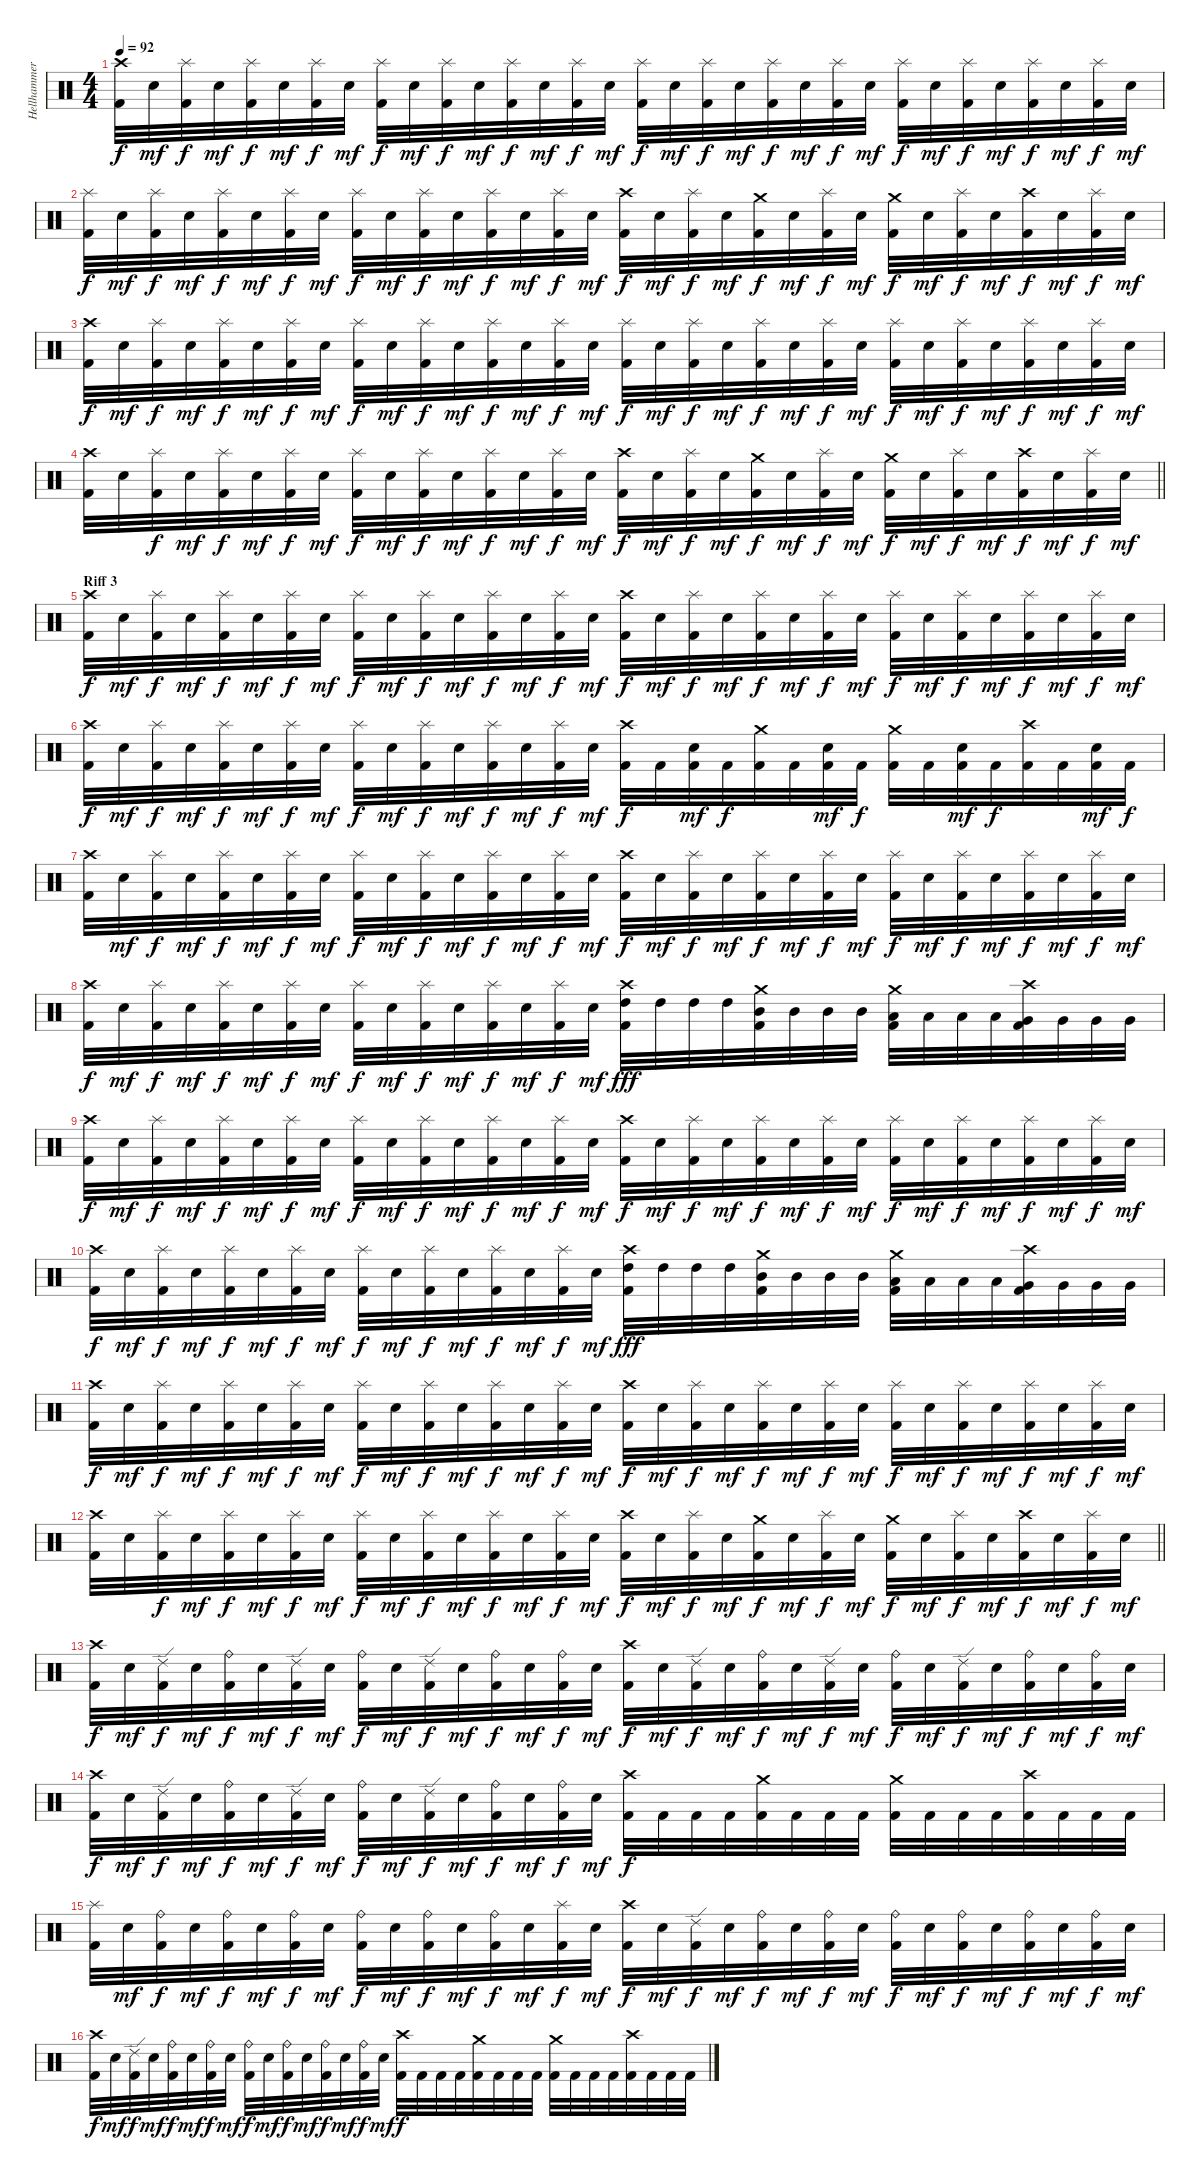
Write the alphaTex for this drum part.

\track ("Hellhammer" "Hellhammer") {instrument percussion}
\staff {score}
\articulation defaults
\ts (4 4)
\tempo 92
\clef neutral
\ks c
("Crash high (hit)" "Kick (hit) 2").32{dy f} "Electric Snare (hit)".32{dy mf} ("Splash (hit)" "Kick (hit) 2").32{dy f} "Electric Snare (hit)".32{dy mf} ("Splash (hit)" "Kick (hit) 2").32{dy f} "Electric Snare (hit)".32{dy mf} ("Splash (hit)" "Kick (hit) 2").32{dy f} "Electric Snare (hit)".32{dy mf} ("Splash (hit)" "Kick (hit) 2").32{dy f} "Electric Snare (hit)".32{dy mf} ("Splash (hit)" "Kick (hit) 2").32{dy f} "Electric Snare (hit)".32{dy mf} ("Splash (hit)" "Kick (hit) 2").32{dy f} "Electric Snare (hit)".32{dy mf} ("Splash (hit)" "Kick (hit) 2").32{dy f} "Electric Snare (hit)".32{dy mf} ("Splash (hit)" "Kick (hit) 2").32{dy f} "Electric Snare (hit)".32{dy mf} ("Splash (hit)" "Kick (hit) 2").32{dy f} "Electric Snare (hit)".32{dy mf} ("Splash (hit)" "Kick (hit) 2").32{dy f} "Electric Snare (hit)".32{dy mf} ("Splash (hit)" "Kick (hit) 2").32{dy f} "Electric Snare (hit)".32{dy mf} ("Splash (hit)" "Kick (hit) 2").32{dy f} "Electric Snare (hit)".32{dy mf} ("Splash (hit)" "Kick (hit) 2").32{dy f} "Electric Snare (hit)".32{dy mf} ("Splash (hit)" "Kick (hit) 2").32{dy f} "Electric Snare (hit)".32{dy mf} ("Splash (hit)" "Kick (hit) 2").32{dy f} "Electric Snare (hit)".32{dy mf} |
("Splash (hit)" "Kick (hit) 2").32{dy f} "Electric Snare (hit)".32{dy mf} ("Splash (hit)" "Kick (hit) 2").32{dy f} "Electric Snare (hit)".32{dy mf} ("Splash (hit)" "Kick (hit) 2").32{dy f} "Electric Snare (hit)".32{dy mf} ("Splash (hit)" "Kick (hit) 2").32{dy f} "Electric Snare (hit)".32{dy mf} ("Splash (hit)" "Kick (hit) 2").32{dy f} "Electric Snare (hit)".32{dy mf} ("Splash (hit)" "Kick (hit) 2").32{dy f} "Electric Snare (hit)".32{dy mf} ("Splash (hit)" "Kick (hit) 2").32{dy f} "Electric Snare (hit)".32{dy mf} ("Splash (hit)" "Kick (hit) 2").32{dy f} "Electric Snare (hit)".32{dy mf} ("Crash high (hit)" "Kick (hit) 2").32{dy f} "Electric Snare (hit)".32{dy mf} ("Splash (hit)" "Kick (hit) 2").32{dy f} "Electric Snare (hit)".32{dy mf} ("Crash medium (hit)" "Kick (hit) 2").32{dy f} "Electric Snare (hit)".32{dy mf} ("Splash (hit)" "Kick (hit) 2").32{dy f} "Electric Snare (hit)".32{dy mf} ("Crash medium (hit)" "Kick (hit) 2").32{dy f} "Electric Snare (hit)".32{dy mf} ("Splash (hit)" "Kick (hit) 2").32{dy f} "Electric Snare (hit)".32{dy mf} ("Crash high (hit)" "Kick (hit) 2").32{dy f} "Electric Snare (hit)".32{dy mf} ("Splash (hit)" "Kick (hit) 2").32{dy f} "Electric Snare (hit)".32{dy mf} |
("Crash high (hit)" "Kick (hit) 2").32{dy f} "Electric Snare (hit)".32{dy mf} ("Splash (hit)" "Kick (hit) 2").32{dy f} "Electric Snare (hit)".32{dy mf} ("Splash (hit)" "Kick (hit) 2").32{dy f} "Electric Snare (hit)".32{dy mf} ("Splash (hit)" "Kick (hit) 2").32{dy f} "Electric Snare (hit)".32{dy mf} ("Splash (hit)" "Kick (hit) 2").32{dy f} "Electric Snare (hit)".32{dy mf} ("Splash (hit)" "Kick (hit) 2").32{dy f} "Electric Snare (hit)".32{dy mf} ("Splash (hit)" "Kick (hit) 2").32{dy f} "Electric Snare (hit)".32{dy mf} ("Splash (hit)" "Kick (hit) 2").32{dy f} "Electric Snare (hit)".32{dy mf} ("Splash (hit)" "Kick (hit) 2").32{dy f} "Electric Snare (hit)".32{dy mf} ("Splash (hit)" "Kick (hit) 2").32{dy f} "Electric Snare (hit)".32{dy mf} ("Splash (hit)" "Kick (hit) 2").32{dy f} "Electric Snare (hit)".32{dy mf} ("Splash (hit)" "Kick (hit) 2").32{dy f} "Electric Snare (hit)".32{dy mf} ("Splash (hit)" "Kick (hit) 2").32{dy f} "Electric Snare (hit)".32{dy mf} ("Splash (hit)" "Kick (hit) 2").32{dy f} "Electric Snare (hit)".32{dy mf} ("Splash (hit)" "Kick (hit) 2").32{dy f} "Electric Snare (hit)".32{dy mf} ("Splash (hit)" "Kick (hit) 2").32{dy f} "Electric Snare (hit)".32{dy mf} |
\barLineRight lightlight
("Crash high (hit)" "Kick (hit) 2").32 "Electric Snare (hit)".32 ("Splash (hit)" "Kick (hit) 2").32{dy f} "Electric Snare (hit)".32{dy mf} ("Splash (hit)" "Kick (hit) 2").32{dy f} "Electric Snare (hit)".32{dy mf} ("Splash (hit)" "Kick (hit) 2").32{dy f} "Electric Snare (hit)".32{dy mf} ("Splash (hit)" "Kick (hit) 2").32{dy f} "Electric Snare (hit)".32{dy mf} ("Splash (hit)" "Kick (hit) 2").32{dy f} "Electric Snare (hit)".32{dy mf} ("Splash (hit)" "Kick (hit) 2").32{dy f} "Electric Snare (hit)".32{dy mf} ("Splash (hit)" "Kick (hit) 2").32{dy f} "Electric Snare (hit)".32{dy mf} ("Crash high (hit)" "Kick (hit) 2").32{dy f} "Electric Snare (hit)".32{dy mf} ("Splash (hit)" "Kick (hit) 2").32{dy f} "Electric Snare (hit)".32{dy mf} ("Crash medium (hit)" "Kick (hit) 2").32{dy f} "Electric Snare (hit)".32{dy mf} ("Splash (hit)" "Kick (hit) 2").32{dy f} "Electric Snare (hit)".32{dy mf} ("Crash medium (hit)" "Kick (hit) 2").32{dy f} "Electric Snare (hit)".32{dy mf} ("Splash (hit)" "Kick (hit) 2").32{dy f} "Electric Snare (hit)".32{dy mf} ("Crash high (hit)" "Kick (hit) 2").32{dy f} "Electric Snare (hit)".32{dy mf} ("Splash (hit)" "Kick (hit) 2").32{dy f} "Electric Snare (hit)".32{dy mf} |
\section ("" "Riff 3")
("Crash high (hit)" "Kick (hit) 2").32{dy f} "Electric Snare (hit)".32{dy mf} ("Splash (hit)" "Kick (hit) 2").32{dy f} "Electric Snare (hit)".32{dy mf} ("Splash (hit)" "Kick (hit) 2").32{dy f} "Electric Snare (hit)".32{dy mf} ("Splash (hit)" "Kick (hit) 2").32{dy f} "Electric Snare (hit)".32{dy mf} ("Splash (hit)" "Kick (hit) 2").32{dy f} "Electric Snare (hit)".32{dy mf} ("Splash (hit)" "Kick (hit) 2").32{dy f} "Electric Snare (hit)".32{dy mf} ("Splash (hit)" "Kick (hit) 2").32{dy f} "Electric Snare (hit)".32{dy mf} ("Splash (hit)" "Kick (hit) 2").32{dy f} "Electric Snare (hit)".32{dy mf} ("Crash high (hit)" "Kick (hit) 2").32{dy f} "Electric Snare (hit)".32{dy mf} ("Splash (hit)" "Kick (hit) 2").32{dy f} "Electric Snare (hit)".32{dy mf} ("Splash (hit)" "Kick (hit) 2").32{dy f} "Electric Snare (hit)".32{dy mf} ("Splash (hit)" "Kick (hit) 2").32{dy f} "Electric Snare (hit)".32{dy mf} ("Splash (hit)" "Kick (hit) 2").32{dy f} "Electric Snare (hit)".32{dy mf} ("Splash (hit)" "Kick (hit) 2").32{dy f} "Electric Snare (hit)".32{dy mf} ("Splash (hit)" "Kick (hit) 2").32{dy f} "Electric Snare (hit)".32{dy mf} ("Splash (hit)" "Kick (hit) 2").32{dy f} "Electric Snare (hit)".32{dy mf} |
("Crash high (hit)" "Kick (hit) 2").32{dy f} "Electric Snare (hit)".32{dy mf} ("Splash (hit)" "Kick (hit) 2").32{dy f} "Electric Snare (hit)".32{dy mf} ("Splash (hit)" "Kick (hit) 2").32{dy f} "Electric Snare (hit)".32{dy mf} ("Splash (hit)" "Kick (hit) 2").32{dy f} "Electric Snare (hit)".32{dy mf} ("Splash (hit)" "Kick (hit) 2").32{dy f} "Electric Snare (hit)".32{dy mf} ("Splash (hit)" "Kick (hit) 2").32{dy f} "Electric Snare (hit)".32{dy mf} ("Splash (hit)" "Kick (hit) 2").32{dy f} "Electric Snare (hit)".32{dy mf} ("Splash (hit)" "Kick (hit) 2").32{dy f} "Electric Snare (hit)".32{dy mf} ("Crash high (hit)" "Kick (hit) 2").32{dy f} "Kick (hit) 2".32 ("Electric Snare (hit)" "Kick (hit) 2").32{dy mf} "Kick (hit) 2".32{dy f} ("Crash medium (hit)" "Kick (hit) 2").32 "Kick (hit) 2".32 ("Electric Snare (hit)" "Kick (hit) 2").32{dy mf} "Kick (hit) 2".32{dy f} ("Crash medium (hit)" "Kick (hit) 2").32 "Kick (hit) 2".32 ("Electric Snare (hit)" "Kick (hit) 2").32{dy mf} "Kick (hit) 2".32{dy f} ("Crash high (hit)" "Kick (hit) 2").32 "Kick (hit) 2".32 ("Electric Snare (hit)" "Kick (hit) 2").32{dy mf} "Kick (hit) 2".32{dy f} |
("Crash high (hit)" "Kick (hit) 2").32 "Electric Snare (hit)".32{dy mf} ("Splash (hit)" "Kick (hit) 2").32{dy f} "Electric Snare (hit)".32{dy mf} ("Splash (hit)" "Kick (hit) 2").32{dy f} "Electric Snare (hit)".32{dy mf} ("Splash (hit)" "Kick (hit) 2").32{dy f} "Electric Snare (hit)".32{dy mf} ("Splash (hit)" "Kick (hit) 2").32{dy f} "Electric Snare (hit)".32{dy mf} ("Splash (hit)" "Kick (hit) 2").32{dy f} "Electric Snare (hit)".32{dy mf} ("Splash (hit)" "Kick (hit) 2").32{dy f} "Electric Snare (hit)".32{dy mf} ("Splash (hit)" "Kick (hit) 2").32{dy f} "Electric Snare (hit)".32{dy mf} ("Crash high (hit)" "Kick (hit) 2").32{dy f} "Electric Snare (hit)".32{dy mf} ("Splash (hit)" "Kick (hit) 2").32{dy f} "Electric Snare (hit)".32{dy mf} ("Splash (hit)" "Kick (hit) 2").32{dy f} "Electric Snare (hit)".32{dy mf} ("Splash (hit)" "Kick (hit) 2").32{dy f} "Electric Snare (hit)".32{dy mf} ("Splash (hit)" "Kick (hit) 2").32{dy f} "Electric Snare (hit)".32{dy mf} ("Splash (hit)" "Kick (hit) 2").32{dy f} "Electric Snare (hit)".32{dy mf} ("Splash (hit)" "Kick (hit) 2").32{dy f} "Electric Snare (hit)".32{dy mf} ("Splash (hit)" "Kick (hit) 2").32{dy f} "Electric Snare (hit)".32{dy mf} |
("Crash high (hit)" "Kick (hit) 2").32{dy f} "Electric Snare (hit)".32{dy mf} ("Splash (hit)" "Kick (hit) 2").32{dy f} "Electric Snare (hit)".32{dy mf} ("Splash (hit)" "Kick (hit) 2").32{dy f} "Electric Snare (hit)".32{dy mf} ("Splash (hit)" "Kick (hit) 2").32{dy f} "Electric Snare (hit)".32{dy mf} ("Splash (hit)" "Kick (hit) 2").32{dy f} "Electric Snare (hit)".32{dy mf} ("Splash (hit)" "Kick (hit) 2").32{dy f} "Electric Snare (hit)".32{dy mf} ("Splash (hit)" "Kick (hit) 2").32{dy f} "Electric Snare (hit)".32{dy mf} ("Splash (hit)" "Kick (hit) 2").32{dy f} "Electric Snare (hit)".32{dy mf} ("Crash high (hit)" "High Tom (hit)" "Kick (hit) 2").32{dy fff} "High Tom (hit)".32 "High Tom (hit)".32 "High Tom (hit)".32 ("Crash medium (hit)" "Mid Tom (hit)" "Kick (hit) 2").32 "Mid Tom (hit)".32 "Mid Tom (hit)".32 "Mid Tom (hit)".32 ("Crash medium (hit)" "Low Tom (hit)" "Kick (hit) 2").32 "Low Tom (hit)".32 "Low Tom (hit)".32 "Low Tom (hit)".32 ("Crash high (hit)" "Very Low Tom (hit)" "Kick (hit) 2").32 "Very Low Tom (hit)".32 "Very Low Tom (hit)".32 "Very Low Tom (hit)".32 |
("Crash high (hit)" "Kick (hit) 2").32{dy f} "Electric Snare (hit)".32{dy mf} ("Splash (hit)" "Kick (hit) 2").32{dy f} "Electric Snare (hit)".32{dy mf} ("Splash (hit)" "Kick (hit) 2").32{dy f} "Electric Snare (hit)".32{dy mf} ("Splash (hit)" "Kick (hit) 2").32{dy f} "Electric Snare (hit)".32{dy mf} ("Splash (hit)" "Kick (hit) 2").32{dy f} "Electric Snare (hit)".32{dy mf} ("Splash (hit)" "Kick (hit) 2").32{dy f} "Electric Snare (hit)".32{dy mf} ("Splash (hit)" "Kick (hit) 2").32{dy f} "Electric Snare (hit)".32{dy mf} ("Splash (hit)" "Kick (hit) 2").32{dy f} "Electric Snare (hit)".32{dy mf} ("Crash high (hit)" "Kick (hit) 2").32{dy f} "Electric Snare (hit)".32{dy mf} ("Splash (hit)" "Kick (hit) 2").32{dy f} "Electric Snare (hit)".32{dy mf} ("Splash (hit)" "Kick (hit) 2").32{dy f} "Electric Snare (hit)".32{dy mf} ("Splash (hit)" "Kick (hit) 2").32{dy f} "Electric Snare (hit)".32{dy mf} ("Splash (hit)" "Kick (hit) 2").32{dy f} "Electric Snare (hit)".32{dy mf} ("Splash (hit)" "Kick (hit) 2").32{dy f} "Electric Snare (hit)".32{dy mf} ("Splash (hit)" "Kick (hit) 2").32{dy f} "Electric Snare (hit)".32{dy mf} ("Splash (hit)" "Kick (hit) 2").32{dy f} "Electric Snare (hit)".32{dy mf} |
("Crash high (hit)" "Kick (hit) 2").32{dy f} "Electric Snare (hit)".32{dy mf} ("Splash (hit)" "Kick (hit) 2").32{dy f} "Electric Snare (hit)".32{dy mf} ("Splash (hit)" "Kick (hit) 2").32{dy f} "Electric Snare (hit)".32{dy mf} ("Splash (hit)" "Kick (hit) 2").32{dy f} "Electric Snare (hit)".32{dy mf} ("Splash (hit)" "Kick (hit) 2").32{dy f} "Electric Snare (hit)".32{dy mf} ("Splash (hit)" "Kick (hit) 2").32{dy f} "Electric Snare (hit)".32{dy mf} ("Splash (hit)" "Kick (hit) 2").32{dy f} "Electric Snare (hit)".32{dy mf} ("Splash (hit)" "Kick (hit) 2").32{dy f} "Electric Snare (hit)".32{dy mf} ("Crash high (hit)" "High Tom (hit)" "Kick (hit) 2").32{dy fff} "High Tom (hit)".32 "High Tom (hit)".32 "High Tom (hit)".32 ("Crash medium (hit)" "Mid Tom (hit)" "Kick (hit) 2").32 "Mid Tom (hit)".32 "Mid Tom (hit)".32 "Mid Tom (hit)".32 ("Crash medium (hit)" "Low Tom (hit)" "Kick (hit) 2").32 "Low Tom (hit)".32 "Low Tom (hit)".32 "Low Tom (hit)".32 ("Crash high (hit)" "Very Low Tom (hit)" "Kick (hit) 2").32 "Very Low Tom (hit)".32 "Very Low Tom (hit)".32 "Very Low Tom (hit)".32 |
("Crash high (hit)" "Kick (hit) 2").32{dy f} "Electric Snare (hit)".32{dy mf} ("Splash (hit)" "Kick (hit) 2").32{dy f} "Electric Snare (hit)".32{dy mf} ("Splash (hit)" "Kick (hit) 2").32{dy f} "Electric Snare (hit)".32{dy mf} ("Splash (hit)" "Kick (hit) 2").32{dy f} "Electric Snare (hit)".32{dy mf} ("Splash (hit)" "Kick (hit) 2").32{dy f} "Electric Snare (hit)".32{dy mf} ("Splash (hit)" "Kick (hit) 2").32{dy f} "Electric Snare (hit)".32{dy mf} ("Splash (hit)" "Kick (hit) 2").32{dy f} "Electric Snare (hit)".32{dy mf} ("Splash (hit)" "Kick (hit) 2").32{dy f} "Electric Snare (hit)".32{dy mf} ("Crash high (hit)" "Kick (hit) 2").32{dy f} "Electric Snare (hit)".32{dy mf} ("Splash (hit)" "Kick (hit) 2").32{dy f} "Electric Snare (hit)".32{dy mf} ("Splash (hit)" "Kick (hit) 2").32{dy f} "Electric Snare (hit)".32{dy mf} ("Splash (hit)" "Kick (hit) 2").32{dy f} "Electric Snare (hit)".32{dy mf} ("Splash (hit)" "Kick (hit) 2").32{dy f} "Electric Snare (hit)".32{dy mf} ("Splash (hit)" "Kick (hit) 2").32{dy f} "Electric Snare (hit)".32{dy mf} ("Splash (hit)" "Kick (hit) 2").32{dy f} "Electric Snare (hit)".32{dy mf} ("Splash (hit)" "Kick (hit) 2").32{dy f} "Electric Snare (hit)".32{dy mf} |
\barLineRight lightlight
("Crash high (hit)" "Kick (hit) 2").32 "Electric Snare (hit)".32 ("Splash (hit)" "Kick (hit) 2").32{dy f} "Electric Snare (hit)".32{dy mf} ("Splash (hit)" "Kick (hit) 2").32{dy f} "Electric Snare (hit)".32{dy mf} ("Splash (hit)" "Kick (hit) 2").32{dy f} "Electric Snare (hit)".32{dy mf} ("Splash (hit)" "Kick (hit) 2").32{dy f} "Electric Snare (hit)".32{dy mf} ("Splash (hit)" "Kick (hit) 2").32{dy f} "Electric Snare (hit)".32{dy mf} ("Splash (hit)" "Kick (hit) 2").32{dy f} "Electric Snare (hit)".32{dy mf} ("Splash (hit)" "Kick (hit) 2").32{dy f} "Electric Snare (hit)".32{dy mf} ("Crash high (hit)" "Kick (hit) 2").32{dy f} "Electric Snare (hit)".32{dy mf} ("Splash (hit)" "Kick (hit) 2").32{dy f} "Electric Snare (hit)".32{dy mf} ("Crash medium (hit)" "Kick (hit) 2").32{dy f} "Electric Snare (hit)".32{dy mf} ("Splash (hit)" "Kick (hit) 2").32{dy f} "Electric Snare (hit)".32{dy mf} ("Crash medium (hit)" "Kick (hit) 2").32{dy f} "Electric Snare (hit)".32{dy mf} ("Splash (hit)" "Kick (hit) 2").32{dy f} "Electric Snare (hit)".32{dy mf} ("Crash high (hit)" "Kick (hit) 2").32{dy f} "Electric Snare (hit)".32{dy mf} ("Splash (hit)" "Kick (hit) 2").32{dy f} "Electric Snare (hit)".32{dy mf} |
("Crash high (hit)" "Kick (hit) 2").32{dy f} "Electric Snare (hit)".32{dy mf} ("Ride (edge) 2" "Kick (hit) 2").32{dy f} "Electric Snare (hit)".32{dy mf} ("Ride (bell)" "Kick (hit) 2").32{dy f} "Electric Snare (hit)".32{dy mf} ("Ride (edge) 2" "Kick (hit) 2").32{dy f} "Electric Snare (hit)".32{dy mf} ("Ride (bell)" "Kick (hit) 2").32{dy f} "Electric Snare (hit)".32{dy mf} ("Ride (edge) 2" "Kick (hit) 2").32{dy f} "Electric Snare (hit)".32{dy mf} ("Ride (bell)" "Kick (hit) 2").32{dy f} "Electric Snare (hit)".32{dy mf} ("Ride (bell)" "Kick (hit) 2").32{dy f} "Electric Snare (hit)".32{dy mf} ("Crash high (hit)" "Kick (hit) 2").32{dy f} "Electric Snare (hit)".32{dy mf} ("Ride (edge) 2" "Kick (hit) 2").32{dy f} "Electric Snare (hit)".32{dy mf} ("Ride (bell)" "Kick (hit) 2").32{dy f} "Electric Snare (hit)".32{dy mf} ("Ride (edge) 2" "Kick (hit) 2").32{dy f} "Electric Snare (hit)".32{dy mf} ("Ride (bell)" "Kick (hit) 2").32{dy f} "Electric Snare (hit)".32{dy mf} ("Ride (edge) 2" "Kick (hit) 2").32{dy f} "Electric Snare (hit)".32{dy mf} ("Ride (bell)" "Kick (hit) 2").32{dy f} "Electric Snare (hit)".32{dy mf} ("Ride (bell)" "Kick (hit) 2").32{dy f} "Electric Snare (hit)".32{dy mf} |
("Crash high (hit)" "Kick (hit) 2").32{dy f} "Electric Snare (hit)".32{dy mf} ("Ride (edge) 2" "Kick (hit) 2").32{dy f} "Electric Snare (hit)".32{dy mf} ("Ride (bell)" "Kick (hit) 2").32{dy f} "Electric Snare (hit)".32{dy mf} ("Ride (edge) 2" "Kick (hit) 2").32{dy f} "Electric Snare (hit)".32{dy mf} ("Ride (bell)" "Kick (hit) 2").32{dy f} "Electric Snare (hit)".32{dy mf} ("Ride (edge) 2" "Kick (hit) 2").32{dy f} "Electric Snare (hit)".32{dy mf} ("Ride (bell)" "Kick (hit) 2").32{dy f} "Electric Snare (hit)".32{dy mf} ("Ride (bell)" "Kick (hit) 2").32{dy f} "Electric Snare (hit)".32{dy mf} ("Crash high (hit)" "Kick (hit) 2").32{dy f} "Kick (hit) 2".32 "Kick (hit) 2".32 "Kick (hit) 2".32 ("Crash medium (hit)" "Kick (hit) 2").32 "Kick (hit) 2".32 "Kick (hit) 2".32 "Kick (hit) 2".32 ("Crash medium (hit)" "Kick (hit) 2").32 "Kick (hit) 2".32 "Kick (hit) 2".32 "Kick (hit) 2".32 ("Crash high (hit)" "Kick (hit) 2").32 "Kick (hit) 2".32 "Kick (hit) 2".32 "Kick (hit) 2".32 |
("Splash (hit)" "Kick (hit) 2").32 "Electric Snare (hit)".32{dy mf} ("Ride (bell)" "Kick (hit) 2").32{dy f} "Electric Snare (hit)".32{dy mf} ("Ride (bell)" "Kick (hit) 2").32{dy f} "Electric Snare (hit)".32{dy mf} ("Ride (bell)" "Kick (hit) 2").32{dy f} "Electric Snare (hit)".32{dy mf} ("Ride (bell)" "Kick (hit) 2").32{dy f} "Electric Snare (hit)".32{dy mf} ("Ride (bell)" "Kick (hit) 2").32{dy f} "Electric Snare (hit)".32{dy mf} ("Ride (bell)" "Kick (hit) 2").32{dy f} "Electric Snare (hit)".32{dy mf} ("Splash (hit)" "Kick (hit) 2").32{dy f} "Electric Snare (hit)".32{dy mf} ("Crash high (hit)" "Kick (hit) 2").32{dy f} "Electric Snare (hit)".32{dy mf} ("Ride (edge) 2" "Kick (hit) 2").32{dy f} "Electric Snare (hit)".32{dy mf} ("Ride (bell)" "Kick (hit) 2").32{dy f} "Electric Snare (hit)".32{dy mf} ("Ride (bell)" "Kick (hit) 2").32{dy f} "Electric Snare (hit)".32{dy mf} ("Ride (bell)" "Kick (hit) 2").32{dy f} "Electric Snare (hit)".32{dy mf} ("Ride (bell)" "Kick (hit) 2").32{dy f} "Electric Snare (hit)".32{dy mf} ("Ride (bell)" "Kick (hit) 2").32{dy f} "Electric Snare (hit)".32{dy mf} ("Ride (bell)" "Kick (hit) 2").32{dy f} "Electric Snare (hit)".32{dy mf} |
("Crash high (hit)" "Kick (hit) 2").32{dy f} "Electric Snare (hit)".32{dy mf} ("Ride (edge) 2" "Kick (hit) 2").32{dy f} "Electric Snare (hit)".32{dy mf} ("Ride (bell)" "Kick (hit) 2").32{dy f} "Electric Snare (hit)".32{dy mf} ("Ride (bell)" "Kick (hit) 2").32{dy f} "Electric Snare (hit)".32{dy mf} ("Ride (bell)" "Kick (hit) 2").32{dy f} "Electric Snare (hit)".32{dy mf} ("Ride (bell)" "Kick (hit) 2").32{dy f} "Electric Snare (hit)".32{dy mf} ("Ride (bell)" "Kick (hit) 2").32{dy f} "Electric Snare (hit)".32{dy mf} ("Ride (bell)" "Kick (hit) 2").32{dy f} "Electric Snare (hit)".32{dy mf} ("Crash high (hit)" "Kick (hit) 2").32{dy f} "Kick (hit) 2".32 "Kick (hit) 2".32 "Kick (hit) 2".32 ("Crash medium (hit)" "Kick (hit) 2").32 "Kick (hit) 2".32 "Kick (hit) 2".32 "Kick (hit) 2".32 ("Crash medium (hit)" "Kick (hit) 2").32 "Kick (hit) 2".32 "Kick (hit) 2".32 "Kick (hit) 2".32 ("Crash high (hit)" "Kick (hit) 2").32 "Kick (hit) 2".32 "Kick (hit) 2".32 "Kick (hit) 2".32
